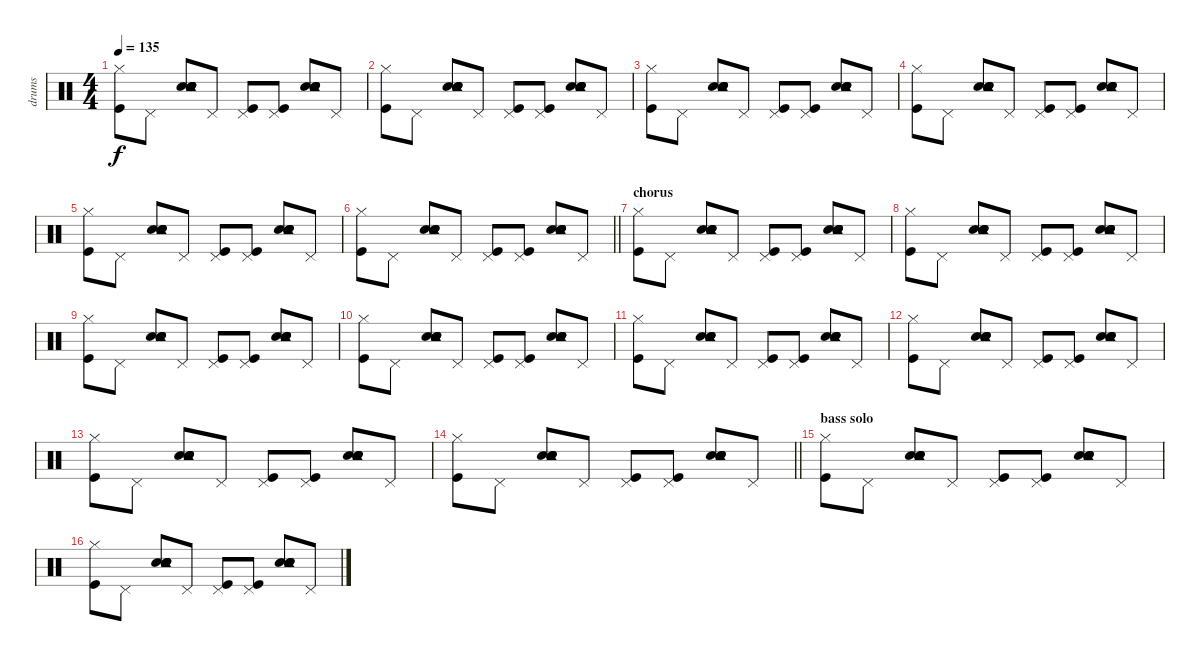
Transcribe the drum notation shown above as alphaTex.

\track ("drums" "drums") {instrument percussion}
\staff {score}
\articulation defaults
\ts (4 4)
\tempo 135
\clef neutral
\ks c
("Kick (hit)" "Hi-Hat (closed)").8{dy f} "Pedal Hi-Hat (hit)".8 ("Snare (hit) 2" "Snare (hit) 2" "Electric Snare (hit)" "Electric Snare (hit)" "Tambourine (hit)").8 "Pedal Hi-Hat (hit)".8 ("Kick (hit)" "Pedal Hi-Hat (hit)").8 ("Kick (hit)" "Pedal Hi-Hat (hit)").8 ("Snare (hit) 2" "Snare (hit) 2" "Electric Snare (hit)" "Electric Snare (hit)" "Tambourine (hit)").8 "Pedal Hi-Hat (hit)".8 |
("Kick (hit)" "Hi-Hat (closed)").8 "Pedal Hi-Hat (hit)".8 ("Snare (hit) 2" "Snare (hit) 2" "Electric Snare (hit)" "Electric Snare (hit)" "Tambourine (hit)").8 "Pedal Hi-Hat (hit)".8 ("Kick (hit)" "Pedal Hi-Hat (hit)").8 ("Kick (hit)" "Pedal Hi-Hat (hit)").8 ("Snare (hit) 2" "Snare (hit) 2" "Electric Snare (hit)" "Electric Snare (hit)" "Tambourine (hit)").8 "Pedal Hi-Hat (hit)".8 |
("Kick (hit)" "Hi-Hat (closed)").8 "Pedal Hi-Hat (hit)".8 ("Snare (hit) 2" "Snare (hit) 2" "Electric Snare (hit)" "Electric Snare (hit)" "Tambourine (hit)").8 "Pedal Hi-Hat (hit)".8 ("Kick (hit)" "Pedal Hi-Hat (hit)").8 ("Kick (hit)" "Pedal Hi-Hat (hit)").8 ("Snare (hit) 2" "Snare (hit) 2" "Electric Snare (hit)" "Electric Snare (hit)" "Tambourine (hit)").8 "Pedal Hi-Hat (hit)".8 |
("Kick (hit)" "Hi-Hat (closed)").8 "Pedal Hi-Hat (hit)".8 ("Snare (hit) 2" "Snare (hit) 2" "Electric Snare (hit)" "Electric Snare (hit)" "Tambourine (hit)").8 "Pedal Hi-Hat (hit)".8 ("Kick (hit)" "Pedal Hi-Hat (hit)").8 ("Kick (hit)" "Pedal Hi-Hat (hit)").8 ("Snare (hit) 2" "Snare (hit) 2" "Electric Snare (hit)" "Electric Snare (hit)" "Tambourine (hit)").8 "Pedal Hi-Hat (hit)".8 |
("Kick (hit)" "Hi-Hat (closed)").8 "Pedal Hi-Hat (hit)".8 ("Snare (hit) 2" "Snare (hit) 2" "Electric Snare (hit)" "Electric Snare (hit)" "Tambourine (hit)").8 "Pedal Hi-Hat (hit)".8 ("Kick (hit)" "Pedal Hi-Hat (hit)").8 ("Kick (hit)" "Pedal Hi-Hat (hit)").8 ("Snare (hit) 2" "Snare (hit) 2" "Electric Snare (hit)" "Electric Snare (hit)" "Tambourine (hit)").8 "Pedal Hi-Hat (hit)".8 |
\barLineRight lightlight
("Kick (hit)" "Hi-Hat (closed)").8 "Pedal Hi-Hat (hit)".8 ("Snare (hit) 2" "Snare (hit) 2" "Electric Snare (hit)" "Electric Snare (hit)" "Tambourine (hit)").8 "Pedal Hi-Hat (hit)".8 ("Kick (hit)" "Pedal Hi-Hat (hit)").8 ("Kick (hit)" "Pedal Hi-Hat (hit)").8 ("Snare (hit) 2" "Snare (hit) 2" "Electric Snare (hit)" "Electric Snare (hit)" "Tambourine (hit)").8 "Pedal Hi-Hat (hit)".8 |
\section ("" "chorus")
("Kick (hit)" "Hi-Hat (closed)").8 "Pedal Hi-Hat (hit)".8 ("Snare (hit) 2" "Snare (hit) 2" "Electric Snare (hit)" "Electric Snare (hit)" "Tambourine (hit)").8 "Pedal Hi-Hat (hit)".8 ("Kick (hit)" "Pedal Hi-Hat (hit)").8 ("Kick (hit)" "Pedal Hi-Hat (hit)").8 ("Snare (hit) 2" "Snare (hit) 2" "Electric Snare (hit)" "Electric Snare (hit)" "Tambourine (hit)").8 "Pedal Hi-Hat (hit)".8 |
("Kick (hit)" "Hi-Hat (closed)").8 "Pedal Hi-Hat (hit)".8 ("Snare (hit) 2" "Snare (hit) 2" "Electric Snare (hit)" "Electric Snare (hit)" "Tambourine (hit)").8 "Pedal Hi-Hat (hit)".8 ("Kick (hit)" "Pedal Hi-Hat (hit)").8 ("Kick (hit)" "Pedal Hi-Hat (hit)").8 ("Snare (hit) 2" "Snare (hit) 2" "Electric Snare (hit)" "Electric Snare (hit)" "Tambourine (hit)").8 "Pedal Hi-Hat (hit)".8 |
("Kick (hit)" "Hi-Hat (closed)").8 "Pedal Hi-Hat (hit)".8 ("Snare (hit) 2" "Snare (hit) 2" "Electric Snare (hit)" "Electric Snare (hit)" "Tambourine (hit)").8 "Pedal Hi-Hat (hit)".8 ("Kick (hit)" "Pedal Hi-Hat (hit)").8 ("Kick (hit)" "Pedal Hi-Hat (hit)").8 ("Snare (hit) 2" "Snare (hit) 2" "Electric Snare (hit)" "Electric Snare (hit)" "Tambourine (hit)").8 "Pedal Hi-Hat (hit)".8 |
("Kick (hit)" "Hi-Hat (closed)").8 "Pedal Hi-Hat (hit)".8 ("Snare (hit) 2" "Snare (hit) 2" "Electric Snare (hit)" "Electric Snare (hit)" "Tambourine (hit)").8 "Pedal Hi-Hat (hit)".8 ("Kick (hit)" "Pedal Hi-Hat (hit)").8 ("Kick (hit)" "Pedal Hi-Hat (hit)").8 ("Snare (hit) 2" "Snare (hit) 2" "Electric Snare (hit)" "Electric Snare (hit)" "Tambourine (hit)").8 "Pedal Hi-Hat (hit)".8 |
("Kick (hit)" "Hi-Hat (closed)").8 "Pedal Hi-Hat (hit)".8 ("Snare (hit) 2" "Snare (hit) 2" "Electric Snare (hit)" "Electric Snare (hit)" "Tambourine (hit)").8 "Pedal Hi-Hat (hit)".8 ("Kick (hit)" "Pedal Hi-Hat (hit)").8 ("Kick (hit)" "Pedal Hi-Hat (hit)").8 ("Snare (hit) 2" "Snare (hit) 2" "Electric Snare (hit)" "Electric Snare (hit)" "Tambourine (hit)").8 "Pedal Hi-Hat (hit)".8 |
("Kick (hit)" "Hi-Hat (closed)").8 "Pedal Hi-Hat (hit)".8 ("Snare (hit) 2" "Snare (hit) 2" "Electric Snare (hit)" "Electric Snare (hit)" "Tambourine (hit)").8 "Pedal Hi-Hat (hit)".8 ("Kick (hit)" "Pedal Hi-Hat (hit)").8 ("Kick (hit)" "Pedal Hi-Hat (hit)").8 ("Snare (hit) 2" "Snare (hit) 2" "Electric Snare (hit)" "Electric Snare (hit)" "Tambourine (hit)").8 "Pedal Hi-Hat (hit)".8 |
("Kick (hit)" "Hi-Hat (closed)").8 "Pedal Hi-Hat (hit)".8 ("Snare (hit) 2" "Snare (hit) 2" "Electric Snare (hit)" "Electric Snare (hit)" "Tambourine (hit)").8 "Pedal Hi-Hat (hit)".8 ("Kick (hit)" "Pedal Hi-Hat (hit)").8 ("Kick (hit)" "Pedal Hi-Hat (hit)").8 ("Snare (hit) 2" "Snare (hit) 2" "Electric Snare (hit)" "Electric Snare (hit)" "Tambourine (hit)").8 "Pedal Hi-Hat (hit)".8 |
\barLineRight lightlight
("Kick (hit)" "Hi-Hat (closed)").8 "Pedal Hi-Hat (hit)".8 ("Snare (hit) 2" "Snare (hit) 2" "Electric Snare (hit)" "Electric Snare (hit)" "Tambourine (hit)").8 "Pedal Hi-Hat (hit)".8 ("Kick (hit)" "Pedal Hi-Hat (hit)").8 ("Kick (hit)" "Pedal Hi-Hat (hit)").8 ("Snare (hit) 2" "Snare (hit) 2" "Electric Snare (hit)" "Electric Snare (hit)" "Tambourine (hit)").8 "Pedal Hi-Hat (hit)".8 |
\section ("" "bass solo")
("Kick (hit)" "Hi-Hat (closed)").8 "Pedal Hi-Hat (hit)".8 ("Snare (hit) 2" "Snare (hit) 2" "Electric Snare (hit)" "Electric Snare (hit)" "Tambourine (hit)").8 "Pedal Hi-Hat (hit)".8 ("Kick (hit)" "Pedal Hi-Hat (hit)").8 ("Kick (hit)" "Pedal Hi-Hat (hit)").8 ("Snare (hit) 2" "Snare (hit) 2" "Electric Snare (hit)" "Electric Snare (hit)" "Tambourine (hit)").8 "Pedal Hi-Hat (hit)".8 |
("Kick (hit)" "Hi-Hat (closed)").8 "Pedal Hi-Hat (hit)".8 ("Snare (hit) 2" "Snare (hit) 2" "Electric Snare (hit)" "Electric Snare (hit)" "Tambourine (hit)").8 "Pedal Hi-Hat (hit)".8 ("Kick (hit)" "Pedal Hi-Hat (hit)").8 ("Kick (hit)" "Pedal Hi-Hat (hit)").8 ("Snare (hit) 2" "Snare (hit) 2" "Electric Snare (hit)" "Electric Snare (hit)" "Tambourine (hit)").8 "Pedal Hi-Hat (hit)".8
